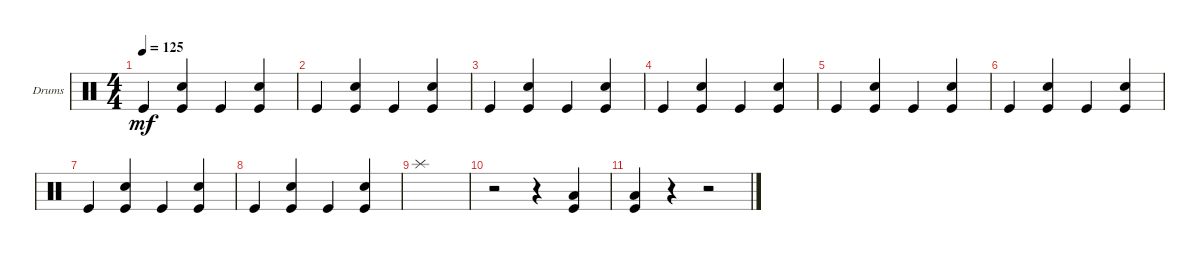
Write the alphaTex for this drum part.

\bracketExtendMode groupsimilarinstruments
\firstSystemTrackNameOrientation horizontal
\otherSystemsTrackNameOrientation horizontal
\track ("Drumkit" "Drums") {instrument percussion}
\staff {score}
\articulation defaults
\ts (4 4)
\tempo 125
\clef neutral
\ks c "Kick (hit)".4{dy mf}
("Snare (hit) 2" "Kick (hit)").4 "Kick (hit)".4 ("Snare (hit) 2" "Kick (hit)").4 |
"Kick (hit)".4 ("Snare (hit) 2" "Kick (hit)").4 "Kick (hit)".4 ("Snare (hit) 2" "Kick (hit)").4 |
"Kick (hit)".4 ("Snare (hit) 2" "Kick (hit)").4 "Kick (hit)".4 ("Snare (hit) 2" "Kick (hit)").4 |
"Kick (hit)".4 ("Snare (hit) 2" "Kick (hit)").4 "Kick (hit)".4 ("Snare (hit) 2" "Kick (hit)").4 |
"Kick (hit)".4 ("Snare (hit) 2" "Kick (hit)").4 "Kick (hit)".4 ("Snare (hit) 2" "Kick (hit)").4 |
"Kick (hit)".4 ("Snare (hit) 2" "Kick (hit)").4 "Kick (hit)".4 ("Snare (hit) 2" "Kick (hit)").4 |
"Kick (hit)".4 ("Snare (hit) 2" "Kick (hit)").4 "Kick (hit)".4 ("Snare (hit) 2" "Kick (hit)").4 |
"Kick (hit)".4 ("Snare (hit) 2" "Kick (hit)").4 "Kick (hit)".4 ("Snare (hit) 2" "Kick (hit)").4 |
"Splash (hit)".1 |
r.2 r.4 ("Low Tom (hit)" "Kick (hit)").4 |
("Low Tom (hit)" "Kick (hit)").4 r.4 r.2
